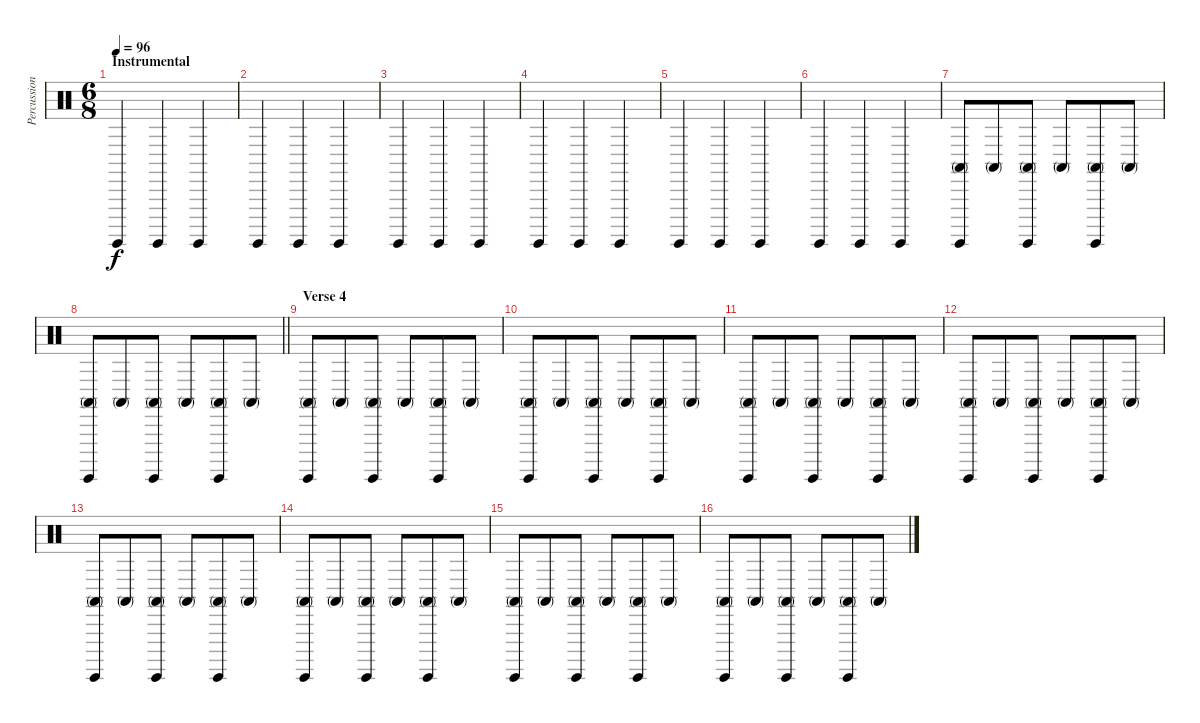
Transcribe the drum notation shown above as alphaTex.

\track ("Percussion" "Percussion") {instrument percussion}
\staff {score}
\articulation defaults
\ts (6 8)
\section ("" "Instrumental")
\tempo 96
\clef neutral
\ks c "Surdo (hit)".4{dy f} "Surdo (hit)".4 "Surdo (hit)".4
|
"Surdo (hit)".4 "Surdo (hit)".4 "Surdo (hit)".4 |
"Surdo (hit)".4 "Surdo (hit)".4 "Surdo (hit)".4 |
"Surdo (hit)".4 "Surdo (hit)".4 "Surdo (hit)".4 |
"Surdo (hit)".4 "Surdo (hit)".4 "Surdo (hit)".4 |
"Surdo (hit)".4 "Surdo (hit)".4 "Surdo (hit)".4 |
("Surdo (hit)" "Conga high (mute)").8 "Conga high (mute)".8 ("Surdo (hit)" "Conga high (mute)").8 "Conga high (mute)".8 ("Surdo (hit)" "Conga high (mute)").8 "Conga high (mute)".8 |
\barLineRight lightlight
("Surdo (hit)" "Conga high (mute)").8 "Conga high (mute)".8 ("Surdo (hit)" "Conga high (mute)").8 "Conga high (mute)".8 ("Surdo (hit)" "Conga high (mute)").8 "Conga high (mute)".8 |
\section ("" "Verse 4")
("Surdo (hit)" "Conga high (mute)").8 "Conga high (mute)".8 ("Surdo (hit)" "Conga high (mute)").8 "Conga high (mute)".8 ("Surdo (hit)" "Conga high (mute)").8 "Conga high (mute)".8 |
("Surdo (hit)" "Conga high (mute)").8 "Conga high (mute)".8 ("Surdo (hit)" "Conga high (mute)").8 "Conga high (mute)".8 ("Surdo (hit)" "Conga high (mute)").8 "Conga high (mute)".8 |
("Surdo (hit)" "Conga high (mute)").8 "Conga high (mute)".8 ("Surdo (hit)" "Conga high (mute)").8 "Conga high (mute)".8 ("Surdo (hit)" "Conga high (mute)").8 "Conga high (mute)".8 |
("Surdo (hit)" "Conga high (mute)").8 "Conga high (mute)".8 ("Surdo (hit)" "Conga high (mute)").8 "Conga high (mute)".8 ("Surdo (hit)" "Conga high (mute)").8 "Conga high (mute)".8 |
("Surdo (hit)" "Conga high (mute)").8 "Conga high (mute)".8 ("Surdo (hit)" "Conga high (mute)").8 "Conga high (mute)".8 ("Surdo (hit)" "Conga high (mute)").8 "Conga high (mute)".8 |
("Surdo (hit)" "Conga high (mute)").8 "Conga high (mute)".8 ("Surdo (hit)" "Conga high (mute)").8 "Conga high (mute)".8 ("Surdo (hit)" "Conga high (mute)").8 "Conga high (mute)".8 |
("Surdo (hit)" "Conga high (mute)").8 "Conga high (mute)".8 ("Surdo (hit)" "Conga high (mute)").8 "Conga high (mute)".8 ("Surdo (hit)" "Conga high (mute)").8 "Conga high (mute)".8 |
("Surdo (hit)" "Conga high (mute)").8 "Conga high (mute)".8 ("Surdo (hit)" "Conga high (mute)").8 "Conga high (mute)".8 ("Surdo (hit)" "Conga high (mute)").8 "Conga high (mute)".8
